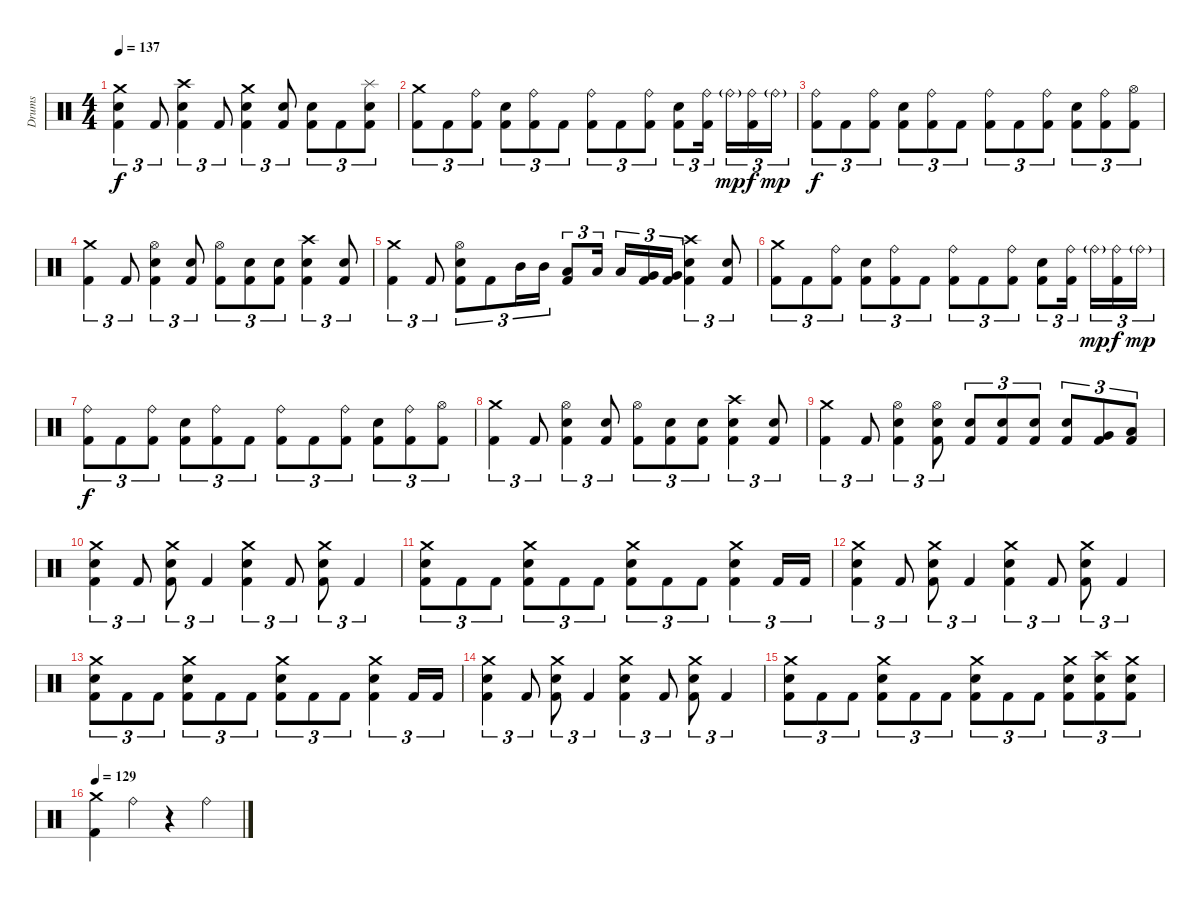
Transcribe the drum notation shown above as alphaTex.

\track ("Drums" "Drums") {instrument percussion}
\staff {score}
\articulation defaults
\ts (4 4)
\tempo 137
\clef neutral
\ks c
("Crash medium (hit)" "Electric Snare (hit)" "Kick (hit) 2").4{tu (3 2) dy f} "Kick (hit) 2".8{tu (3 2)} ("Crash high (hit)" "Electric Snare (hit)" "Kick (hit) 2").4{tu (3 2)} "Kick (hit) 2".8{tu (3 2)} ("Crash medium (hit)" "Electric Snare (hit)" "Kick (hit) 2").4{tu (3 2)} ("Electric Snare (hit)" "Kick (hit) 2").8{tu (3 2)} ("Electric Snare (hit)" "Kick (hit) 2").8{tu (3 2)} "Kick (hit) 2".8{tu (3 2)} ("Splash (hit)" "Electric Snare (hit)" "Kick (hit) 2").8{tu (3 2)} |
\section ("" "")
("Crash medium (hit)" "Kick (hit) 2").8{tu (3 2)} "Kick (hit) 2".8{tu (3 2)} ("Ride (bell)" "Kick (hit) 2").8{tu (3 2)} ("Electric Snare (hit)" "Kick (hit) 2").8{tu (3 2)} ("Ride (bell)" "Kick (hit) 2").8{tu (3 2)} "Kick (hit) 2".8{tu (3 2)} ("Ride (bell)" "Kick (hit) 2").8{tu (3 2)} "Kick (hit) 2".8{tu (3 2)} ("Ride (bell)" "Kick (hit) 2").8{tu (3 2)} ("Electric Snare (hit)" "Kick (hit) 2").8{tu (3 2)} ("Ride (bell)" "Kick (hit) 2").16{tu (3 2)} "Ride (bell)"{g}.16{tu (3 2) dy mp} ("Ride (bell)" "Kick (hit) 2").16{tu (3 2) dy f} "Ride (bell)"{g}.16{tu (3 2) dy mp} |
("Ride (bell)" "Kick (hit) 2").8{tu (3 2) dy f} "Kick (hit) 2".8{tu (3 2)} ("Ride (bell)" "Kick (hit) 2").8{tu (3 2)} ("Electric Snare (hit)" "Kick (hit) 2").8{tu (3 2)} ("Ride (bell)" "Kick (hit) 2").8{tu (3 2)} "Kick (hit) 2".8{tu (3 2)} ("Ride (bell)" "Kick (hit) 2").8{tu (3 2)} "Kick (hit) 2".8{tu (3 2)} ("Ride (bell)" "Kick (hit) 2").8{tu (3 2)} ("Electric Snare (hit)" "Kick (hit) 2").8{tu (3 2)} ("Ride (bell)" "Kick (hit) 2").8{tu (3 2)} ("Hi-Hat (open)" "Kick (hit) 2").8{tu (3 2)} |
("Crash medium (hit)" "Kick (hit) 2").4{tu (3 2)} "Kick (hit) 2".8{tu (3 2)} ("Hi-Hat (open)" "Electric Snare (hit)" "Kick (hit) 2").4{tu (3 2)} ("Electric Snare (hit)" "Kick (hit) 2").8{tu (3 2)} ("Hi-Hat (open)" "Kick (hit) 2").8{tu (3 2)} ("Electric Snare (hit)" "Kick (hit) 2").8{tu (3 2)} ("Electric Snare (hit)" "Kick (hit) 2").8{tu (3 2)} ("Crash high (hit)" "Electric Snare (hit)" "Kick (hit) 2").4{tu (3 2)} ("Electric Snare (hit)" "Kick (hit) 2").8{tu (3 2)} |
("Crash medium (hit)" "Kick (hit) 2").4{tu (3 2)} "Kick (hit) 2".8{tu (3 2)} ("Hi-Hat (open)" "Electric Snare (hit)" "Kick (hit) 2").8{tu (3 2)} "Kick (hit) 2".8{tu (3 2)} "Mid Tom (hit)".16{tu (3 2)} "Mid Tom (hit)".16{tu (3 2)} ("Low Tom (hit)" "Kick (hit) 2").8{tu (3 2)} "Low Tom (hit)".16{tu (3 2)} "Low Tom (hit)".16{tu (3 2)} ("Very Low Tom (hit)" "Kick (hit) 2").16{tu (3 2)} ("Very Low Tom (hit)" "Kick (hit) 2").16{tu (3 2)} ("Crash high (hit)" "Electric Snare (hit)" "Kick (hit) 2").4{tu (3 2)} ("Electric Snare (hit)" "Kick (hit) 2").8{tu (3 2)} |
("Crash medium (hit)" "Kick (hit) 2").8{tu (3 2)} "Kick (hit) 2".8{tu (3 2)} ("Ride (bell)" "Kick (hit) 2").8{tu (3 2)} ("Electric Snare (hit)" "Kick (hit) 2").8{tu (3 2)} ("Ride (bell)" "Kick (hit) 2").8{tu (3 2)} "Kick (hit) 2".8{tu (3 2)} ("Ride (bell)" "Kick (hit) 2").8{tu (3 2)} "Kick (hit) 2".8{tu (3 2)} ("Ride (bell)" "Kick (hit) 2").8{tu (3 2)} ("Electric Snare (hit)" "Kick (hit) 2").8{tu (3 2)} ("Ride (bell)" "Kick (hit) 2").16{tu (3 2)} "Ride (bell)"{g}.16{tu (3 2) dy mp} ("Ride (bell)" "Kick (hit) 2").16{tu (3 2) dy f} "Ride (bell)"{g}.16{tu (3 2) dy mp} |
("Ride (bell)" "Kick (hit) 2").8{tu (3 2) dy f} "Kick (hit) 2".8{tu (3 2)} ("Ride (bell)" "Kick (hit) 2").8{tu (3 2)} ("Electric Snare (hit)" "Kick (hit) 2").8{tu (3 2)} ("Ride (bell)" "Kick (hit) 2").8{tu (3 2)} "Kick (hit) 2".8{tu (3 2)} ("Ride (bell)" "Kick (hit) 2").8{tu (3 2)} "Kick (hit) 2".8{tu (3 2)} ("Ride (bell)" "Kick (hit) 2").8{tu (3 2)} ("Electric Snare (hit)" "Kick (hit) 2").8{tu (3 2)} ("Ride (bell)" "Kick (hit) 2").8{tu (3 2)} ("Hi-Hat (open)" "Kick (hit) 2").8{tu (3 2)} |
("Crash medium (hit)" "Kick (hit) 2").4{tu (3 2)} "Kick (hit) 2".8{tu (3 2)} ("Hi-Hat (open)" "Electric Snare (hit)" "Kick (hit) 2").4{tu (3 2)} ("Electric Snare (hit)" "Kick (hit) 2").8{tu (3 2)} ("Hi-Hat (open)" "Kick (hit) 2").8{tu (3 2)} ("Electric Snare (hit)" "Kick (hit) 2").8{tu (3 2)} ("Electric Snare (hit)" "Kick (hit) 2").8{tu (3 2)} ("Crash high (hit)" "Electric Snare (hit)" "Kick (hit) 2").4{tu (3 2)} ("Electric Snare (hit)" "Kick (hit) 2").8{tu (3 2)} |
("Crash medium (hit)" "Kick (hit) 2").4{tu (3 2)} "Kick (hit) 2".8{tu (3 2)} ("Hi-Hat (open)" "Electric Snare (hit)" "Kick (hit) 2").4{tu (3 2)} ("Hi-Hat (open)" "Electric Snare (hit)" "Kick (hit) 2").8{tu (3 2)} ("Electric Snare (hit)" "Kick (hit) 2").8{tu (3 2)} ("Electric Snare (hit)" "Kick (hit) 2").8{tu (3 2)} ("Electric Snare (hit)" "Kick (hit) 2").8{tu (3 2)} ("Electric Snare (hit)" "Kick (hit) 2").8{tu (3 2)} ("Very Low Tom (hit)" "Kick (hit) 2").8{tu (3 2)} ("Low Floor Tom (hit)" "Kick (hit) 2").8{tu (3 2)} |
\section ("" "")
("Crash medium (hit)" "Electric Snare (hit)" "Kick (hit) 2").4{tu (3 2)} "Kick (hit) 2".8{tu (3 2)} ("Crash medium (hit)" "Electric Snare (hit)" "Kick (hit) 2").8{tu (3 2)} "Kick (hit) 2".4{tu (3 2)} ("Crash medium (hit)" "Electric Snare (hit)" "Kick (hit) 2").4{tu (3 2)} "Kick (hit) 2".8{tu (3 2)} ("Crash medium (hit)" "Electric Snare (hit)" "Kick (hit) 2").8{tu (3 2)} "Kick (hit) 2".4{tu (3 2)} |
("Crash medium (hit)" "Electric Snare (hit)" "Kick (hit) 2").8{tu (3 2)} "Kick (hit) 2".8{tu (3 2)} "Kick (hit) 2".8{tu (3 2)} ("Crash medium (hit)" "Electric Snare (hit)" "Kick (hit) 2").8{tu (3 2)} "Kick (hit) 2".8{tu (3 2)} "Kick (hit) 2".8{tu (3 2)} ("Crash medium (hit)" "Electric Snare (hit)" "Kick (hit) 2").8{tu (3 2)} "Kick (hit) 2".8{tu (3 2)} "Kick (hit) 2".8{tu (3 2)} ("Crash medium (hit)" "Electric Snare (hit)" "Kick (hit) 2").4{tu (3 2)} "Kick (hit) 2".16{tu (3 2)} "Kick (hit) 2".16{tu (3 2)} |
("Crash medium (hit)" "Electric Snare (hit)" "Kick (hit) 2").4{tu (3 2)} "Kick (hit) 2".8{tu (3 2)} ("Crash medium (hit)" "Electric Snare (hit)" "Kick (hit) 2").8{tu (3 2)} "Kick (hit) 2".4{tu (3 2)} ("Crash medium (hit)" "Electric Snare (hit)" "Kick (hit) 2").4{tu (3 2)} "Kick (hit) 2".8{tu (3 2)} ("Crash medium (hit)" "Electric Snare (hit)" "Kick (hit) 2").8{tu (3 2)} "Kick (hit) 2".4{tu (3 2)} |
("Crash medium (hit)" "Electric Snare (hit)" "Kick (hit) 2").8{tu (3 2)} "Kick (hit) 2".8{tu (3 2)} "Kick (hit) 2".8{tu (3 2)} ("Crash medium (hit)" "Electric Snare (hit)" "Kick (hit) 2").8{tu (3 2)} "Kick (hit) 2".8{tu (3 2)} "Kick (hit) 2".8{tu (3 2)} ("Crash medium (hit)" "Electric Snare (hit)" "Kick (hit) 2").8{tu (3 2)} "Kick (hit) 2".8{tu (3 2)} "Kick (hit) 2".8{tu (3 2)} ("Crash medium (hit)" "Electric Snare (hit)" "Kick (hit) 2").4{tu (3 2)} "Kick (hit) 2".16{tu (3 2)} "Kick (hit) 2".16{tu (3 2)} |
("Crash medium (hit)" "Electric Snare (hit)" "Kick (hit) 2").4{tu (3 2)} "Kick (hit) 2".8{tu (3 2)} ("Crash medium (hit)" "Electric Snare (hit)" "Kick (hit) 2").8{tu (3 2)} "Kick (hit) 2".4{tu (3 2)} ("Crash medium (hit)" "Electric Snare (hit)" "Kick (hit) 2").4{tu (3 2)} "Kick (hit) 2".8{tu (3 2)} ("Crash medium (hit)" "Electric Snare (hit)" "Kick (hit) 2").8{tu (3 2)} "Kick (hit) 2".4{tu (3 2)} |
("Crash medium (hit)" "Electric Snare (hit)" "Kick (hit) 2").8{tu (3 2)} "Kick (hit) 2".8{tu (3 2)} "Kick (hit) 2".8{tu (3 2)} ("Crash medium (hit)" "Electric Snare (hit)" "Kick (hit) 2").8{tu (3 2)} "Kick (hit) 2".8{tu (3 2)} "Kick (hit) 2".8{tu (3 2)} ("Crash medium (hit)" "Electric Snare (hit)" "Kick (hit) 2").8{tu (3 2)} "Kick (hit) 2".8{tu (3 2)} "Kick (hit) 2".8{tu (3 2)} ("Crash medium (hit)" "Electric Snare (hit)" "Kick (hit) 2").8{tu (3 2)} ("Crash high (hit)" "Electric Snare (hit)" "Kick (hit) 2").8{tu (3 2)} ("Crash medium (hit)" "Electric Snare (hit)" "Kick (hit) 2").8{tu (3 2)} |
\section ("" "")
\tempo 129
("Crash medium (hit)" "Kick (hit) 2").4 "Ride (bell)".4 r.4 "Ride (bell)".4
